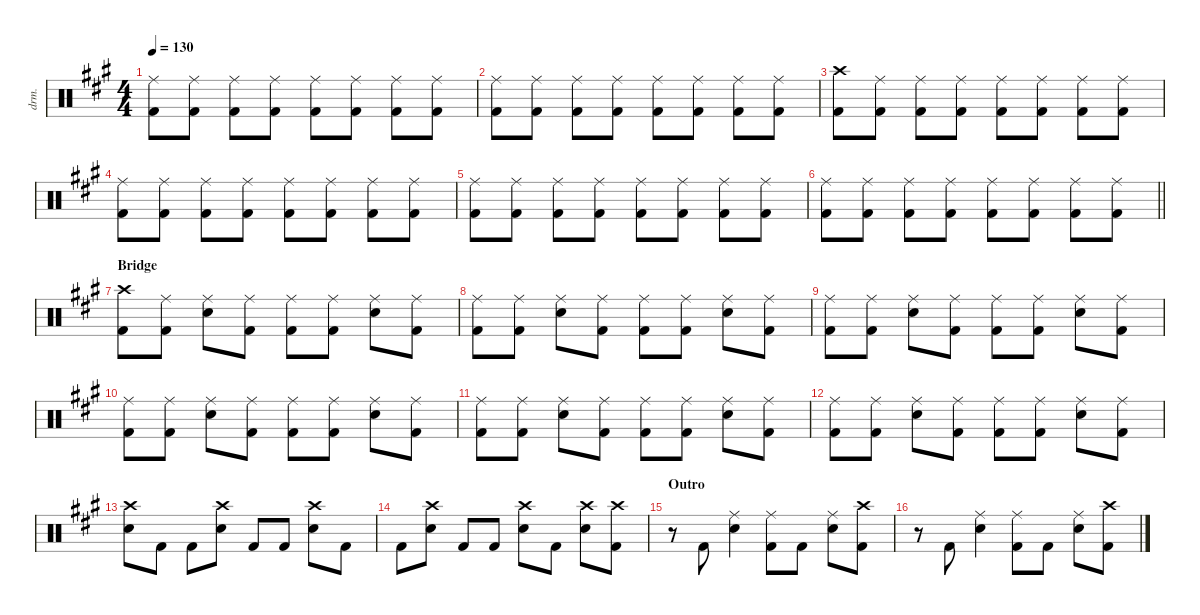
\defaultSystemsLayout 4
\hideDynamics
\bracketExtendMode nobrackets
\track ("Drums" "drm.") {instrument percussion}
\staff {score}
\articulation defaults
\ts (4 4)
\tempo 130
\clef neutral
\ks a
("Ride (middle)"{acc forcenatural} "Kick (hit) 2"{acc forcenatural}).8{dy f beam Down} ("Ride (middle)"{acc forcenatural} "Kick (hit) 2"{acc forcenatural}).8{beam Down} ("Ride (middle)"{acc forcenatural} "Kick (hit) 2"{acc forcenatural}).8{beam Down} ("Ride (middle)"{acc forcenatural} "Kick (hit) 2"{acc forcenatural}).8{beam Down} ("Ride (middle)"{acc forcenatural} "Kick (hit) 2"{acc forcenatural}).8{beam Down} ("Ride (middle)"{acc forcenatural} "Kick (hit) 2"{acc forcenatural}).8{beam Down} ("Ride (middle)"{acc forcenatural} "Kick (hit) 2"{acc forcenatural}).8{beam Down} ("Ride (middle)"{acc forcenatural} "Kick (hit) 2"{acc forcenatural}).8{beam Down} |
("Ride (middle)"{acc forcenatural} "Kick (hit) 2"{acc forcenatural}).8{beam Down} ("Ride (middle)"{acc forcenatural} "Kick (hit) 2"{acc forcenatural}).8{beam Down} ("Ride (middle)"{acc forcenatural} "Kick (hit) 2"{acc forcenatural}).8{beam Down} ("Ride (middle)"{acc forcenatural} "Kick (hit) 2"{acc forcenatural}).8{beam Down} ("Ride (middle)"{acc forcenatural} "Kick (hit) 2"{acc forcenatural}).8{beam Down} ("Ride (middle)"{acc forcenatural} "Kick (hit) 2"{acc forcenatural}).8{beam Down} ("Ride (middle)"{acc forcenatural} "Kick (hit) 2"{acc forcenatural}).8{beam Down} ("Ride (middle)"{acc forcenatural} "Kick (hit) 2"{acc forcenatural}).8{beam Down} |
("Crash high (hit)"{acc forcenatural} "Kick (hit) 2"{acc forcenatural}).8{beam Down} ("Ride (middle)"{acc forcenatural} "Kick (hit) 2"{acc forcenatural}).8{beam Down} ("Ride (middle)"{acc forcenatural} "Kick (hit) 2"{acc forcenatural}).8{beam Down} ("Ride (middle)"{acc forcenatural} "Kick (hit) 2"{acc forcenatural}).8{beam Down} ("Ride (middle)"{acc forcenatural} "Kick (hit) 2"{acc forcenatural}).8{beam Down} ("Ride (middle)"{acc forcenatural} "Kick (hit) 2"{acc forcenatural}).8{beam Down} ("Ride (middle)"{acc forcenatural} "Kick (hit) 2"{acc forcenatural}).8{beam Down} ("Ride (middle)"{acc forcenatural} "Kick (hit) 2"{acc forcenatural}).8{beam Down} |
("Ride (middle)"{acc forcenatural} "Kick (hit) 2"{acc forcenatural}).8{beam Down} ("Ride (middle)"{acc forcenatural} "Kick (hit) 2"{acc forcenatural}).8{beam Down} ("Ride (middle)"{acc forcenatural} "Kick (hit) 2"{acc forcenatural}).8{beam Down} ("Ride (middle)"{acc forcenatural} "Kick (hit) 2"{acc forcenatural}).8{beam Down} ("Ride (middle)"{acc forcenatural} "Kick (hit) 2"{acc forcenatural}).8{beam Down} ("Ride (middle)"{acc forcenatural} "Kick (hit) 2"{acc forcenatural}).8{beam Down} ("Ride (middle)"{acc forcenatural} "Kick (hit) 2"{acc forcenatural}).8{beam Down} ("Ride (middle)"{acc forcenatural} "Kick (hit) 2"{acc forcenatural}).8{beam Down} |
("Ride (middle)"{acc forcenatural} "Kick (hit) 2"{acc forcenatural}).8{beam Down} ("Ride (middle)"{acc forcenatural} "Kick (hit) 2"{acc forcenatural}).8{beam Down} ("Ride (middle)"{acc forcenatural} "Kick (hit) 2"{acc forcenatural}).8{beam Down} ("Ride (middle)"{acc forcenatural} "Kick (hit) 2"{acc forcenatural}).8{beam Down} ("Ride (middle)"{acc forcenatural} "Kick (hit) 2"{acc forcenatural}).8{beam Down} ("Ride (middle)"{acc forcenatural} "Kick (hit) 2"{acc forcenatural}).8{beam Down} ("Ride (middle)"{acc forcenatural} "Kick (hit) 2"{acc forcenatural}).8{beam Down} ("Ride (middle)"{acc forcenatural} "Kick (hit) 2"{acc forcenatural}).8{beam Down} |
\barLineRight lightlight
("Ride (middle)"{acc forcenatural} "Kick (hit) 2"{acc forcenatural}).8{beam Down} ("Ride (middle)"{acc forcenatural} "Kick (hit) 2"{acc forcenatural}).8{beam Down} ("Ride (middle)"{acc forcenatural} "Kick (hit) 2"{acc forcenatural}).8{beam Down} ("Ride (middle)"{acc forcenatural} "Kick (hit) 2"{acc forcenatural}).8{beam Down} ("Ride (middle)"{acc forcenatural} "Kick (hit) 2"{acc forcenatural}).8{beam Down} ("Ride (middle)"{acc forcenatural} "Kick (hit) 2"{acc forcenatural}).8{beam Down} ("Ride (middle)"{acc forcenatural} "Kick (hit) 2"{acc forcenatural}).8{beam Down} ("Ride (middle)"{acc forcenatural} "Kick (hit) 2"{acc forcenatural}).8{beam Down} |
\section ("" "Bridge")
("Crash high (hit)"{acc forcenatural} "Kick (hit) 2"{acc forcenatural}).8{beam Down} ("Ride (middle)"{acc forcenatural} "Kick (hit) 2"{acc forcenatural}).8{beam Down} ("Ride (middle)"{acc forcenatural} "Snare (hit) 2"{acc forcenatural}).8{beam Down} ("Ride (middle)"{acc forcenatural} "Kick (hit) 2"{acc forcenatural}).8{beam Down} ("Ride (middle)"{acc forcenatural} "Kick (hit) 2"{acc forcenatural}).8{beam Down} ("Ride (middle)"{acc forcenatural} "Kick (hit) 2"{acc forcenatural}).8{beam Down} ("Ride (middle)"{acc forcenatural} "Snare (hit) 2"{acc forcenatural}).8{beam Down} ("Ride (middle)"{acc forcenatural} "Kick (hit) 2"{acc forcenatural}).8{beam Down} |
("Ride (middle)"{acc forcenatural} "Kick (hit) 2"{acc forcenatural}).8{beam Down} ("Ride (middle)"{acc forcenatural} "Kick (hit) 2"{acc forcenatural}).8{beam Down} ("Ride (middle)"{acc forcenatural} "Snare (hit) 2"{acc forcenatural}).8{beam Down} ("Ride (middle)"{acc forcenatural} "Kick (hit) 2"{acc forcenatural}).8{beam Down} ("Ride (middle)"{acc forcenatural} "Kick (hit) 2"{acc forcenatural}).8{beam Down} ("Ride (middle)"{acc forcenatural} "Kick (hit) 2"{acc forcenatural}).8{beam Down} ("Ride (middle)"{acc forcenatural} "Snare (hit) 2"{acc forcenatural}).8{beam Down} ("Ride (middle)"{acc forcenatural} "Kick (hit) 2"{acc forcenatural}).8{beam Down} |
("Ride (middle)"{acc forcenatural} "Kick (hit) 2"{acc forcenatural}).8{beam Down} ("Ride (middle)"{acc forcenatural} "Kick (hit) 2"{acc forcenatural}).8{beam Down} ("Ride (middle)"{acc forcenatural} "Snare (hit) 2"{acc forcenatural}).8{beam Down} ("Ride (middle)"{acc forcenatural} "Kick (hit) 2"{acc forcenatural}).8{beam Down} ("Ride (middle)"{acc forcenatural} "Kick (hit) 2"{acc forcenatural}).8{beam Down} ("Ride (middle)"{acc forcenatural} "Kick (hit) 2"{acc forcenatural}).8{beam Down} ("Ride (middle)"{acc forcenatural} "Snare (hit) 2"{acc forcenatural}).8{beam Down} ("Ride (middle)"{acc forcenatural} "Kick (hit) 2"{acc forcenatural}).8{beam Down} |
("Ride (middle)"{acc forcenatural} "Kick (hit) 2"{acc forcenatural}).8{beam Down} ("Ride (middle)"{acc forcenatural} "Kick (hit) 2"{acc forcenatural}).8{beam Down} ("Ride (middle)"{acc forcenatural} "Snare (hit) 2"{acc forcenatural}).8{beam Down} ("Ride (middle)"{acc forcenatural} "Kick (hit) 2"{acc forcenatural}).8{beam Down} ("Ride (middle)"{acc forcenatural} "Kick (hit) 2"{acc forcenatural}).8{beam Down} ("Ride (middle)"{acc forcenatural} "Kick (hit) 2"{acc forcenatural}).8{beam Down} ("Ride (middle)"{acc forcenatural} "Snare (hit) 2"{acc forcenatural}).8{beam Down} ("Ride (middle)"{acc forcenatural} "Kick (hit) 2"{acc forcenatural}).8{beam Down} |
("Ride (middle)"{acc forcenatural} "Kick (hit) 2"{acc forcenatural}).8{beam Down} ("Ride (middle)"{acc forcenatural} "Kick (hit) 2"{acc forcenatural}).8{beam Down} ("Ride (middle)"{acc forcenatural} "Snare (hit) 2"{acc forcenatural}).8{beam Down} ("Ride (middle)"{acc forcenatural} "Kick (hit) 2"{acc forcenatural}).8{beam Down} ("Ride (middle)"{acc forcenatural} "Kick (hit) 2"{acc forcenatural}).8{beam Down} ("Ride (middle)"{acc forcenatural} "Kick (hit) 2"{acc forcenatural}).8{beam Down} ("Ride (middle)"{acc forcenatural} "Snare (hit) 2"{acc forcenatural}).8{beam Down} ("Ride (middle)"{acc forcenatural} "Kick (hit) 2"{acc forcenatural}).8{beam Down} |
("Ride (middle)"{acc forcenatural} "Kick (hit) 2"{acc forcenatural}).8{beam Down} ("Ride (middle)"{acc forcenatural} "Kick (hit) 2"{acc forcenatural}).8{beam Down} ("Ride (middle)"{acc forcenatural} "Snare (hit) 2"{acc forcenatural}).8{beam Down} ("Ride (middle)"{acc forcenatural} "Kick (hit) 2"{acc forcenatural}).8{beam Down} ("Ride (middle)"{acc forcenatural} "Kick (hit) 2"{acc forcenatural}).8{beam Down} ("Ride (middle)"{acc forcenatural} "Kick (hit) 2"{acc forcenatural}).8{beam Down} ("Ride (middle)"{acc forcenatural} "Snare (hit) 2"{acc forcenatural}).8{beam Down} ("Ride (middle)"{acc forcenatural} "Kick (hit) 2"{acc forcenatural}).8{beam Down} |
("Crash high (hit)"{acc forcenatural} "Snare (hit) 2"{acc forcenatural}).8{beam Down} "Kick (hit) 2"{acc forcenatural}.8{beam Down} "Kick (hit) 2"{acc forcenatural}.8{beam Down} ("Crash high (hit)"{acc forcenatural} "Snare (hit) 2"{acc forcenatural}).8{beam Down} "Kick (hit) 2"{acc forcenatural}.8{beam Up} "Kick (hit) 2"{acc forcenatural}.8{beam Up} ("Crash high (hit)"{acc forcenatural} "Snare (hit) 2"{acc forcenatural}).8{beam Down} "Kick (hit) 2"{acc forcenatural}.8{beam Down} |
"Kick (hit) 2"{acc forcenatural}.8{beam Down} ("Crash high (hit)"{acc forcenatural} "Snare (hit) 2"{acc forcenatural}).8{beam Down} "Kick (hit) 2"{acc forcenatural}.8{beam Up} "Kick (hit) 2"{acc forcenatural}.8{beam Up} ("Crash high (hit)"{acc forcenatural} "Snare (hit) 2"{acc forcenatural}).8{beam Down} "Kick (hit) 2"{acc forcenatural}.8{beam Down} ("Crash high (hit)"{acc forcenatural} "Snare (hit) 2"{acc forcenatural}).8{beam Down} ("Crash high (hit)"{acc forcenatural} "Kick (hit) 2"{acc forcenatural}).8{beam Down} |
\section ("" "Outro")
r.8{beam Down} "Kick (hit) 2"{acc forcenatural}.8{beam Up} ("Ride (middle)"{acc forcenatural} "Snare (hit) 2"{acc forcenatural}).4{beam Down} ("Ride (middle)"{acc forcenatural} "Kick (hit) 2"{acc forcenatural}).8{beam Down} "Kick (hit) 2"{acc forcenatural}.8{beam Down} ("Ride (middle)"{acc forcenatural} "Snare (hit) 2"{acc forcenatural}).8{beam Down} ("Crash high (hit)"{acc forcenatural} "Kick (hit) 2"{acc forcenatural}).8{beam Down} |
r.8{beam Down} "Kick (hit) 2"{acc forcenatural}.8{beam Up} ("Ride (middle)"{acc forcenatural} "Snare (hit) 2"{acc forcenatural}).4{beam Down} ("Ride (middle)"{acc forcenatural} "Kick (hit) 2"{acc forcenatural}).8{beam Down} "Kick (hit) 2"{acc forcenatural}.8{beam Down} ("Ride (middle)"{acc forcenatural} "Snare (hit) 2"{acc forcenatural}).8{beam Down} ("Crash high (hit)"{acc forcenatural} "Kick (hit) 2"{acc forcenatural}).8{beam Down}
